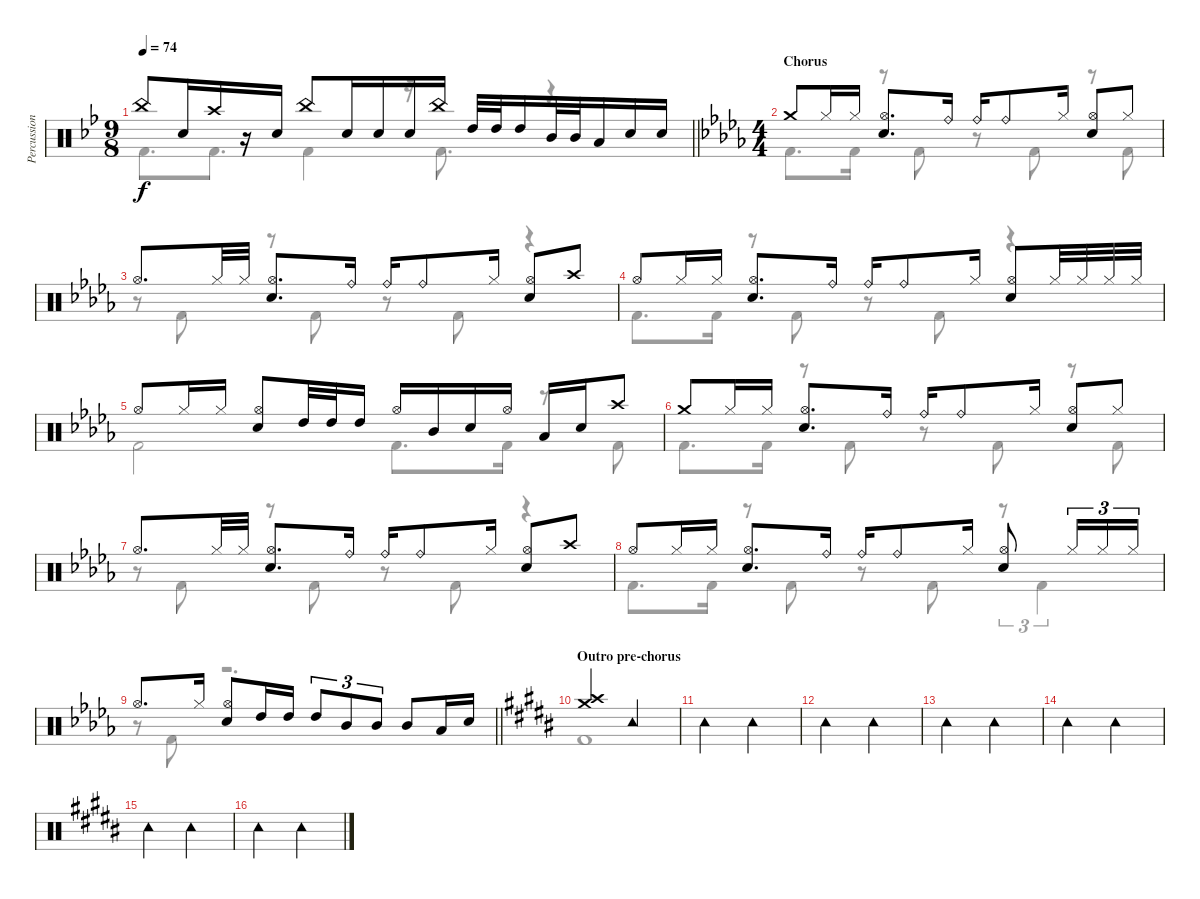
\track ("Percussion" "Percussion") {instrument percussion}
\staff {score}
\articulation defaults
\voice
\ts (9 8)
\tempo 74
\clef neutral
\barLineRight lightlight
\ks gminor "China (hit)".8{dy f} "Snare (hit) 2".16 "Crash high (hit)".16
r.16 "Snare (hit) 2".16 "China (hit)".8 "Snare (hit) 2".16 "Snare (hit) 2".16 "Snare (hit) 2".16 "China (hit)".16 "High Tom (hit)".32 "High Tom (hit)".32 "High Tom (hit)".16 "Mid Tom (hit)".32 "Mid Tom (hit)".32 "Low Tom (hit)".16 "Snare (hit) 2".16 "Snare (hit) 2".16 |
\ts (4 4)
\section ("" "Chorus")
\ks db "Crash medium (hit)".8 "Hi-Hat (closed)".16 "Hi-Hat (closed)".16
("Hi-Hat (open)" "Snare (hit) 2").8{d} "Ride (bell)".16 "Ride (bell)".16 "Ride (bell)".8 "Hi-Hat (closed)".16 ("Hi-Hat (open)" "Snare (hit) 2").8 "Hi-Hat (closed)".8 |
"Hi-Hat (open)".8{d} "Hi-Hat (closed)".32 "Hi-Hat (closed)".32 ("Hi-Hat (open)" "Snare (hit) 2").8{d} "Ride (bell)".16 "Ride (bell)".16 "Ride (bell)".8 "Hi-Hat (closed)".16 ("Hi-Hat (open)" "Snare (hit) 2").8 "Crash high (hit)".8 |
"Hi-Hat (open)".8 "Hi-Hat (closed)".16 "Hi-Hat (closed)".16 ("Hi-Hat (open)" "Snare (hit) 2").8{d} "Ride (bell)".16 "Ride (bell)".16 "Ride (bell)".8 "Hi-Hat (closed)".16 ("Hi-Hat (open)" "Snare (hit) 2").8 "Hi-Hat (closed)".32 "Hi-Hat (closed)".32 "Hi-Hat (closed)".32 "Hi-Hat (closed)".32 |
"Hi-Hat (open)".8 "Hi-Hat (closed)".16 "Hi-Hat (closed)".16 ("Hi-Hat (open)" "Snare (hit) 2").8 "High Tom (hit)".32 "High Tom (hit)".32 "High Tom (hit)".16 "Hi-Hat (open)".16 "Mid Tom (hit)".16 "Snare (hit) 2".16 "Hi-Hat (open)".16 "Low Tom (hit)".16 "Snare (hit) 2".16 "Crash high (hit)".8 |
"Crash medium (hit)".8 "Hi-Hat (closed)".16 "Hi-Hat (closed)".16 ("Hi-Hat (open)" "Snare (hit) 2").8{d} "Ride (bell)".16 "Ride (bell)".16 "Ride (bell)".8 "Hi-Hat (closed)".16 ("Hi-Hat (open)" "Snare (hit) 2").8 "Hi-Hat (closed)".8 |
"Hi-Hat (open)".8{d} "Hi-Hat (closed)".32 "Hi-Hat (closed)".32 ("Hi-Hat (open)" "Snare (hit) 2").8{d} "Ride (bell)".16 "Ride (bell)".16 "Ride (bell)".8 "Hi-Hat (closed)".16 ("Hi-Hat (open)" "Snare (hit) 2").8 "Crash high (hit)".8 |
"Hi-Hat (open)".8 "Hi-Hat (closed)".16 "Hi-Hat (closed)".16 ("Hi-Hat (open)" "Snare (hit) 2").8{d} "Ride (bell)".16 "Ride (bell)".16 "Ride (bell)".8 "Hi-Hat (closed)".16 ("Hi-Hat (open)" "Snare (hit) 2").8 "Hi-Hat (closed)".16{tu (3 2)} "Hi-Hat (closed)".16{tu (3 2)} "Hi-Hat (closed)".16{tu (3 2)} |
\barLineRight lightlight "Hi-Hat (open)".8{d} "Hi-Hat (closed)".16
("Hi-Hat (open)" "Snare (hit) 2").8 "High Tom (hit)".16 "High Tom (hit)".16 "High Tom (hit)".8{tu (3 2)} "Mid Tom (hit)".8{tu (3 2)} "Mid Tom (hit)".8{tu (3 2)} "Mid Tom (hit)".8 "Low Tom (hit)".16 "Snare (hit) 2".16 |
\section ("" "Outro pre-chorus")
\ks g#minor
("Crash medium (hit)" "Crash high (hit)").2 "Tambourine (hit)".2 |
"Tambourine (hit)".2 "Tambourine (hit)".2 |
"Tambourine (hit)".2 "Tambourine (hit)".2 |
"Tambourine (hit)".2 "Tambourine (hit)".2 |
"Tambourine (hit)".2 "Tambourine (hit)".2 |
"Tambourine (hit)".2 "Tambourine (hit)".2 |
"Tambourine (hit)".2 "Tambourine (hit)".2
\voice
\clef neutral
\ottava regular
\simile none
\barLineRight lightlight
\ks gminor "Kick (hit) 2".8{d dy f} "Kick (hit) 2".8{d} "Kick (hit) 2".4
r.16 "Kick (hit) 2".8{d} r.4 |
\ks db "Kick (hit) 2".8{d} "Kick (hit) 2".16
r.8 "Kick (hit) 2".8 r.8 "Kick (hit) 2".8 r.8 "Kick (hit) 2".8 |
r.8 "Kick (hit) 2".8 r.8 "Kick (hit) 2".8 r.8 "Kick (hit) 2".8 r.4 |
"Kick (hit) 2".8{d} "Kick (hit) 2".16 r.8 "Kick (hit) 2".8 r.8 "Kick (hit) 2".8 r.4 |
"Kick (hit) 2".2 "Kick (hit) 2".8{d} "Kick (hit) 2".16 r.8 "Kick (hit) 2".8 |
"Kick (hit) 2".8{d} "Kick (hit) 2".16 r.8 "Kick (hit) 2".8 r.8 "Kick (hit) 2".8 r.8 "Kick (hit) 2".8 |
r.8 "Kick (hit) 2".8 r.8 "Kick (hit) 2".8 r.8 "Kick (hit) 2".8 r.4 |
"Kick (hit) 2".8{d} "Kick (hit) 2".16 r.8 "Kick (hit) 2".8 r.8 "Kick (hit) 2".8 r.8{tu (3 2)} "Kick (hit) 2".4{tu (3 2)} |
\barLineRight lightlight
r.8 "Kick (hit) 2".8 r.2{d} |
\ks g#minor "Kick (hit) 2".1
|
|
|
|
|
|
